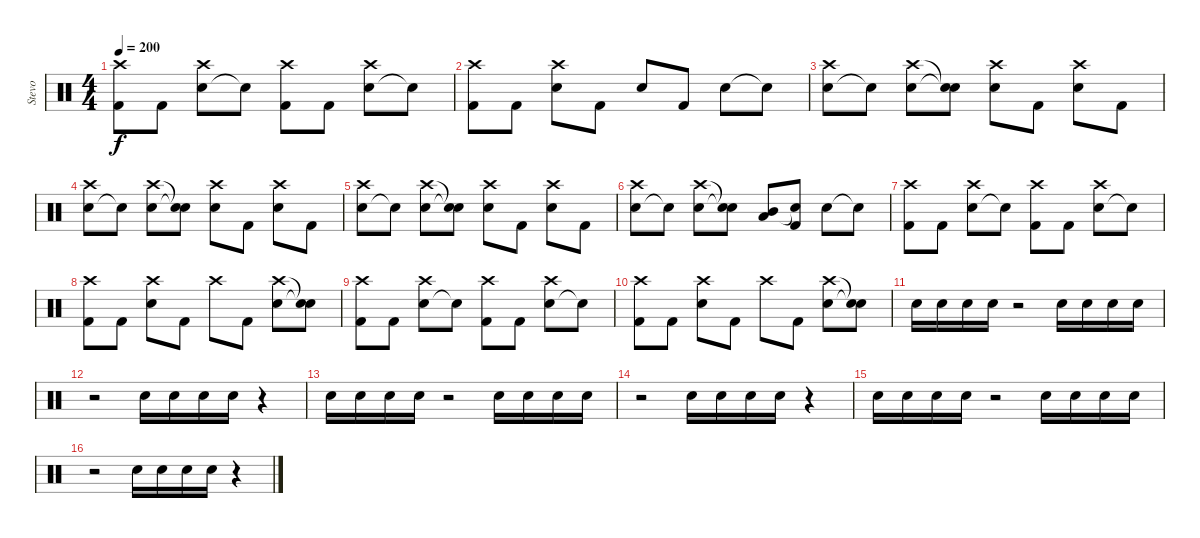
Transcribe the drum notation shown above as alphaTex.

\track ("Stevo" "Stevo") {instrument percussion}
\staff {score}
\articulation defaults
\ts (4 4)
\tempo 200
\clef neutral
\ks c
("Kick (hit) 2" "Crash high (hit)").8{dy f} "Kick (hit) 2".8 ("Snare (hit) 2" "Crash high (hit)").8 "Snare (hit)"{t}.8 ("Kick (hit) 2" "Crash high (hit)").8 "Kick (hit) 2".8 ("Snare (hit) 2" "Crash high (hit)").8 "Snare (hit)"{t}.8 |
("Kick (hit) 2" "Crash high (hit)").8 "Kick (hit) 2".8 ("Snare (hit) 2" "Crash high (hit)").8 "Kick (hit) 2".8 "Snare (hit) 2".8 "Kick (hit) 2".8 "Snare (hit) 2".8 "Snare (hit)"{t}.8 |
("Snare (hit) 2" "Crash high (hit)").8 "Snare (hit)"{t}.8 ("Snare (hit) 2" "Crash high (hit)").8 ("Snare (hit)"{t} "Snare (hit)"{t}).8 ("Snare (hit) 2" "Crash high (hit)").8 "Kick (hit) 2".8 ("Snare (hit) 2" "Crash high (hit)").8 "Kick (hit) 2".8 |
("Snare (hit) 2" "Crash high (hit)").8 "Snare (hit)"{t}.8 ("Snare (hit) 2" "Crash high (hit)").8 ("Snare (hit)"{t} "Snare (hit)"{t}).8 ("Snare (hit) 2" "Crash high (hit)").8 "Kick (hit) 2".8 ("Snare (hit) 2" "Crash high (hit)").8 "Kick (hit) 2".8 |
("Snare (hit) 2" "Crash high (hit)").8 "Snare (hit)"{t}.8 ("Snare (hit) 2" "Crash high (hit)").8 ("Snare (hit)"{t} "Snare (hit)"{t}).8 ("Snare (hit) 2" "Crash high (hit)").8 "Kick (hit) 2".8 ("Snare (hit) 2" "Crash high (hit)").8 "Kick (hit) 2".8 |
("Snare (hit) 2" "Crash high (hit)").8 "Snare (hit)"{t}.8 ("Snare (hit) 2" "Crash high (hit)").8 ("Snare (hit)"{t} "Snare (hit)"{t}).8 ("Mid Tom (hit)" "Low Tom (hit)").8 ("Kick (hit) 2" "Snare (hit) 2"{t}).8 "Snare (hit) 2".8 "Snare (hit) 2"{t}.8 |
("Kick (hit) 2" "Crash high (hit)").8 "Kick (hit) 2".8 ("Snare (hit) 2" "Crash high (hit)").8 "Snare (hit)"{t}.8 ("Kick (hit) 2" "Crash high (hit)").8 "Kick (hit) 2".8 ("Snare (hit) 2" "Crash high (hit)").8 "Snare (hit)"{t}.8 |
("Kick (hit) 2" "Crash high (hit)").8 "Kick (hit) 2".8 ("Snare (hit) 2" "Crash high (hit)").8 "Kick (hit) 2".8 "Crash high (hit)".8 "Kick (hit) 2".8 ("Snare (hit) 2" "Crash high (hit)").8 ("Snare (hit)"{t} "Snare (hit)"{t}).8 |
("Kick (hit) 2" "Crash high (hit)").8 "Kick (hit) 2".8 ("Snare (hit) 2" "Crash high (hit)").8 "Snare (hit)"{t}.8 ("Kick (hit) 2" "Crash high (hit)").8 "Kick (hit) 2".8 ("Snare (hit) 2" "Crash high (hit)").8 "Snare (hit)"{t}.8 |
("Kick (hit) 2" "Crash high (hit)").8 "Kick (hit) 2".8 ("Snare (hit) 2" "Crash high (hit)").8 "Kick (hit) 2".8 "Crash high (hit)".8 "Kick (hit) 2".8 ("Snare (hit) 2" "Crash high (hit)").8 ("Snare (hit)"{t} "Snare (hit)"{t}).8 |
"Snare (hit) 2".16 "Snare (hit) 2".16 "Snare (hit) 2".16 "Snare (hit) 2".16 r.2 "Snare (hit) 2".16 "Snare (hit) 2".16 "Snare (hit) 2".16 "Snare (hit) 2".16 |
r.2 "Snare (hit) 2".16 "Snare (hit) 2".16 "Snare (hit) 2".16 "Snare (hit) 2".16 r.4 |
"Snare (hit) 2".16 "Snare (hit) 2".16 "Snare (hit) 2".16 "Snare (hit) 2".16 r.2 "Snare (hit) 2".16 "Snare (hit) 2".16 "Snare (hit) 2".16 "Snare (hit) 2".16 |
r.2 "Snare (hit) 2".16 "Snare (hit) 2".16 "Snare (hit) 2".16 "Snare (hit) 2".16 r.4 |
"Snare (hit) 2".16 "Snare (hit) 2".16 "Snare (hit) 2".16 "Snare (hit) 2".16 r.2 "Snare (hit) 2".16 "Snare (hit) 2".16 "Snare (hit) 2".16 "Snare (hit) 2".16 |
r.2 "Snare (hit) 2".16 "Snare (hit) 2".16 "Snare (hit) 2".16 "Snare (hit) 2".16 r.4
